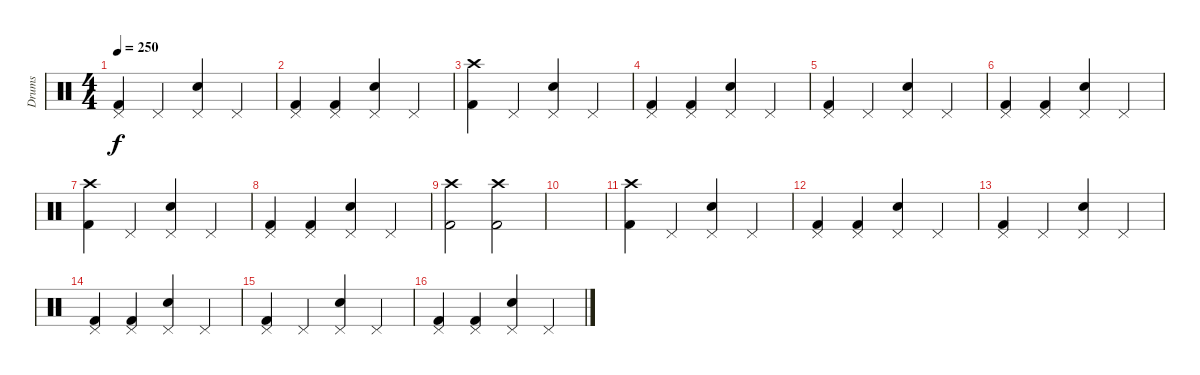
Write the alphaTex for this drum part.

\track ("Drums" "Drums") {instrument percussion}
\staff {score}
\articulation defaults
\ts (4 4)
\tempo 250
\clef neutral
\ks c
("Pedal Hi-Hat (hit)" "Kick (hit) 2").4{dy f} "Pedal Hi-Hat (hit)".4 ("Pedal Hi-Hat (hit)" "Electric Snare (hit)").4 "Pedal Hi-Hat (hit)".4 |
("Pedal Hi-Hat (hit)" "Kick (hit) 2").4 ("Pedal Hi-Hat (hit)" "Kick (hit) 2").4 ("Pedal Hi-Hat (hit)" "Electric Snare (hit)").4 "Pedal Hi-Hat (hit)".4 |
("Kick (hit) 2" "Crash high (hit)").4 "Pedal Hi-Hat (hit)".4 ("Pedal Hi-Hat (hit)" "Electric Snare (hit)").4 "Pedal Hi-Hat (hit)".4 |
("Pedal Hi-Hat (hit)" "Kick (hit) 2").4 ("Pedal Hi-Hat (hit)" "Kick (hit) 2").4 ("Pedal Hi-Hat (hit)" "Electric Snare (hit)").4 "Pedal Hi-Hat (hit)".4 |
("Pedal Hi-Hat (hit)" "Kick (hit) 2").4 "Pedal Hi-Hat (hit)".4 ("Pedal Hi-Hat (hit)" "Electric Snare (hit)").4 "Pedal Hi-Hat (hit)".4 |
("Pedal Hi-Hat (hit)" "Kick (hit) 2").4 ("Pedal Hi-Hat (hit)" "Kick (hit) 2").4 ("Pedal Hi-Hat (hit)" "Electric Snare (hit)").4 "Pedal Hi-Hat (hit)".4 |
("Kick (hit) 2" "Crash high (hit)").4 "Pedal Hi-Hat (hit)".4 ("Pedal Hi-Hat (hit)" "Electric Snare (hit)").4 "Pedal Hi-Hat (hit)".4 |
("Pedal Hi-Hat (hit)" "Kick (hit) 2").4 ("Pedal Hi-Hat (hit)" "Kick (hit) 2").4 ("Pedal Hi-Hat (hit)" "Electric Snare (hit)").4 "Pedal Hi-Hat (hit)".4 |
("Crash high (hit)" "Kick (hit) 2").2 ("Crash high (hit)" "Kick (hit) 2").2 |
|
("Kick (hit) 2" "Crash high (hit)").4 "Pedal Hi-Hat (hit)".4 ("Pedal Hi-Hat (hit)" "Electric Snare (hit)").4 "Pedal Hi-Hat (hit)".4 |
("Pedal Hi-Hat (hit)" "Kick (hit) 2").4 ("Pedal Hi-Hat (hit)" "Kick (hit) 2").4 ("Pedal Hi-Hat (hit)" "Electric Snare (hit)").4 "Pedal Hi-Hat (hit)".4 |
("Pedal Hi-Hat (hit)" "Kick (hit) 2").4 "Pedal Hi-Hat (hit)".4 ("Pedal Hi-Hat (hit)" "Electric Snare (hit)").4 "Pedal Hi-Hat (hit)".4 |
("Pedal Hi-Hat (hit)" "Kick (hit) 2").4 ("Pedal Hi-Hat (hit)" "Kick (hit) 2").4 ("Pedal Hi-Hat (hit)" "Electric Snare (hit)").4 "Pedal Hi-Hat (hit)".4 |
("Pedal Hi-Hat (hit)" "Kick (hit) 2").4 "Pedal Hi-Hat (hit)".4 ("Pedal Hi-Hat (hit)" "Electric Snare (hit)").4 "Pedal Hi-Hat (hit)".4 |
("Pedal Hi-Hat (hit)" "Kick (hit) 2").4 ("Pedal Hi-Hat (hit)" "Kick (hit) 2").4 ("Pedal Hi-Hat (hit)" "Electric Snare (hit)").4 "Pedal Hi-Hat (hit)".4
